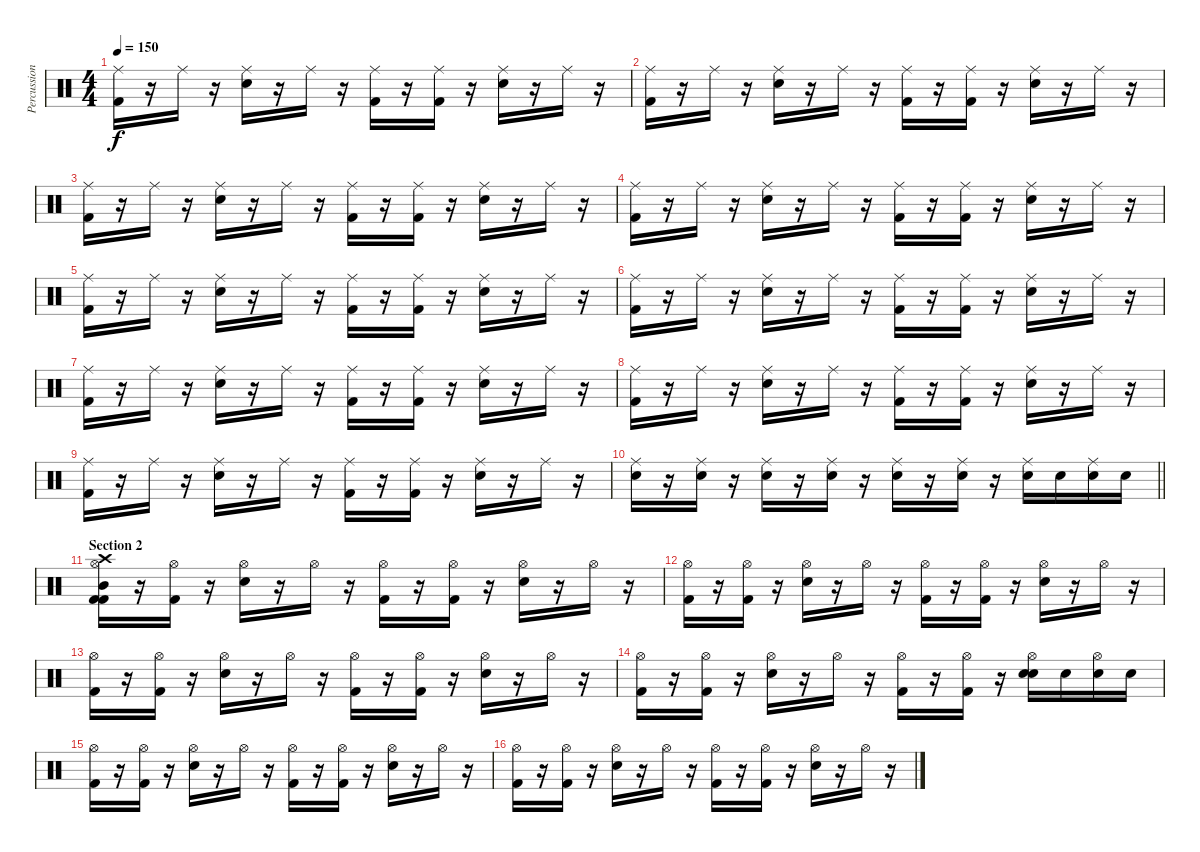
\track ("Percussions" "Percussion") {instrument percussion}
\staff {score}
\articulation defaults
\ts (4 4)
\tempo 150
\clef neutral
\ks c
("Ride (middle)" "Kick (hit) 2").16{dy f} r.16 "Ride (middle)".16 r.16 ("Ride (middle)" "Snare (hit) 2").16 r.16 "Ride (middle)".16 r.16 ("Ride (middle)" "Kick (hit) 2").16 r.16 ("Ride (middle)" "Kick (hit) 2").16 r.16 ("Ride (middle)" "Snare (hit) 2").16 r.16 "Ride (middle)".16 r.16 |
("Ride (middle)" "Kick (hit) 2").16 r.16 "Ride (middle)".16 r.16 ("Ride (middle)" "Snare (hit) 2").16 r.16 "Ride (middle)".16 r.16 ("Ride (middle)" "Kick (hit) 2").16 r.16 ("Ride (middle)" "Kick (hit) 2").16 r.16 ("Ride (middle)" "Snare (hit) 2").16 r.16 "Ride (middle)".16 r.16 |
("Ride (middle)" "Kick (hit) 2").16 r.16 "Ride (middle)".16 r.16 ("Ride (middle)" "Snare (hit) 2").16 r.16 "Ride (middle)".16 r.16 ("Ride (middle)" "Kick (hit) 2").16 r.16 ("Ride (middle)" "Kick (hit) 2").16 r.16 ("Ride (middle)" "Snare (hit) 2").16 r.16 "Ride (middle)".16 r.16 |
("Ride (middle)" "Kick (hit) 2").16 r.16 "Ride (middle)".16 r.16 ("Ride (middle)" "Snare (hit) 2").16 r.16 "Ride (middle)".16 r.16 ("Ride (middle)" "Kick (hit) 2").16 r.16 ("Ride (middle)" "Kick (hit) 2").16 r.16 ("Ride (middle)" "Snare (hit) 2").16 r.16 "Ride (middle)".16 r.16 |
("Ride (middle)" "Kick (hit) 2").16 r.16 "Ride (middle)".16 r.16 ("Ride (middle)" "Snare (hit) 2").16 r.16 "Ride (middle)".16 r.16 ("Ride (middle)" "Kick (hit) 2").16 r.16 ("Ride (middle)" "Kick (hit) 2").16 r.16 ("Ride (middle)" "Snare (hit) 2").16 r.16 "Ride (middle)".16 r.16 |
("Ride (middle)" "Kick (hit) 2").16 r.16 "Ride (middle)".16 r.16 ("Ride (middle)" "Snare (hit) 2").16 r.16 "Ride (middle)".16 r.16 ("Ride (middle)" "Kick (hit) 2").16 r.16 ("Ride (middle)" "Kick (hit) 2").16 r.16 ("Ride (middle)" "Snare (hit) 2").16 r.16 "Ride (middle)".16 r.16 |
("Ride (middle)" "Kick (hit) 2").16 r.16 "Ride (middle)".16 r.16 ("Ride (middle)" "Snare (hit) 2").16 r.16 "Ride (middle)".16 r.16 ("Ride (middle)" "Kick (hit) 2").16 r.16 ("Ride (middle)" "Kick (hit) 2").16 r.16 ("Ride (middle)" "Snare (hit) 2").16 r.16 "Ride (middle)".16 r.16 |
("Ride (middle)" "Kick (hit) 2").16 r.16 "Ride (middle)".16 r.16 ("Ride (middle)" "Snare (hit) 2").16 r.16 "Ride (middle)".16 r.16 ("Ride (middle)" "Kick (hit) 2").16 r.16 ("Ride (middle)" "Kick (hit) 2").16 r.16 ("Ride (middle)" "Snare (hit) 2").16 r.16 "Ride (middle)".16 r.16 |
("Ride (middle)" "Kick (hit) 2").16 r.16 "Ride (middle)".16 r.16 ("Ride (middle)" "Snare (hit) 2").16 r.16 "Ride (middle)".16 r.16 ("Ride (middle)" "Kick (hit) 2").16 r.16 ("Ride (middle)" "Kick (hit) 2").16 r.16 ("Ride (middle)" "Snare (hit) 2").16 r.16 "Ride (middle)".16 r.16 |
\barLineRight lightlight
("Ride (middle)" "Snare (hit) 2").16 r.16 ("Ride (middle)" "Snare (hit) 2").16 r.16 ("Ride (middle)" "Snare (hit) 2").16 r.16 ("Ride (middle)" "Snare (hit) 2").16 r.16 ("Ride (middle)" "Snare (hit) 2").16 r.16 ("Ride (middle)" "Snare (hit) 2").16 r.16 ("Ride (middle)" "Snare (hit) 2").16 "Snare (hit) 2".16 ("Ride (middle)" "Snare (hit) 2").16 "Snare (hit) 2".16 |
\section ("" "Section 2")
("Hi-Hat (open)" "Kick (hit) 2" "Mid Tom (hit)" "Kick (hit) 2" "Crash high (hit)").16 r.16 ("Hi-Hat (open)" "Kick (hit) 2").16 r.16 ("Hi-Hat (open)" "Snare (hit) 2").16 r.16 "Hi-Hat (open)".16 r.16 ("Hi-Hat (open)" "Kick (hit) 2").16 r.16 ("Hi-Hat (open)" "Kick (hit) 2").16 r.16 ("Hi-Hat (open)" "Snare (hit) 2").16 r.16 "Hi-Hat (open)".16 r.16 |
("Hi-Hat (open)" "Kick (hit) 2").16 r.16 ("Hi-Hat (open)" "Kick (hit) 2").16 r.16 ("Hi-Hat (open)" "Snare (hit) 2").16 r.16 "Hi-Hat (open)".16 r.16 ("Hi-Hat (open)" "Kick (hit) 2").16 r.16 ("Hi-Hat (open)" "Kick (hit) 2").16 r.16 ("Hi-Hat (open)" "Snare (hit) 2").16 r.16 "Hi-Hat (open)".16 r.16 |
("Hi-Hat (open)" "Kick (hit) 2").16 r.16 ("Hi-Hat (open)" "Kick (hit) 2").16 r.16 ("Hi-Hat (open)" "Snare (hit) 2").16 r.16 "Hi-Hat (open)".16 r.16 ("Hi-Hat (open)" "Kick (hit) 2").16 r.16 ("Hi-Hat (open)" "Kick (hit) 2").16 r.16 ("Hi-Hat (open)" "Snare (hit) 2").16 r.16 "Hi-Hat (open)".16 r.16 |
("Hi-Hat (open)" "Kick (hit) 2").16 r.16 ("Hi-Hat (open)" "Kick (hit) 2").16 r.16 ("Hi-Hat (open)" "Snare (hit) 2").16 r.16 "Hi-Hat (open)".16 r.16 ("Hi-Hat (open)" "Kick (hit) 2").16 r.16 ("Hi-Hat (open)" "Kick (hit) 2").16 r.16 ("Hi-Hat (open)" "Snare (hit) 2" "Snare (hit) 2").16 "Snare (hit) 2".16 ("Hi-Hat (open)" "Snare (hit) 2").16 "Snare (hit) 2".16 |
("Hi-Hat (open)" "Kick (hit) 2").16 r.16 ("Hi-Hat (open)" "Kick (hit) 2").16 r.16 ("Hi-Hat (open)" "Snare (hit) 2").16 r.16 "Hi-Hat (open)".16 r.16 ("Hi-Hat (open)" "Kick (hit) 2").16 r.16 ("Hi-Hat (open)" "Kick (hit) 2").16 r.16 ("Hi-Hat (open)" "Snare (hit) 2").16 r.16 "Hi-Hat (open)".16 r.16 |
("Hi-Hat (open)" "Kick (hit) 2").16 r.16 ("Hi-Hat (open)" "Kick (hit) 2").16 r.16 ("Hi-Hat (open)" "Snare (hit) 2").16 r.16 "Hi-Hat (open)".16 r.16 ("Hi-Hat (open)" "Kick (hit) 2").16 r.16 ("Hi-Hat (open)" "Kick (hit) 2").16 r.16 ("Hi-Hat (open)" "Snare (hit) 2").16 r.16 "Hi-Hat (open)".16 r.16
